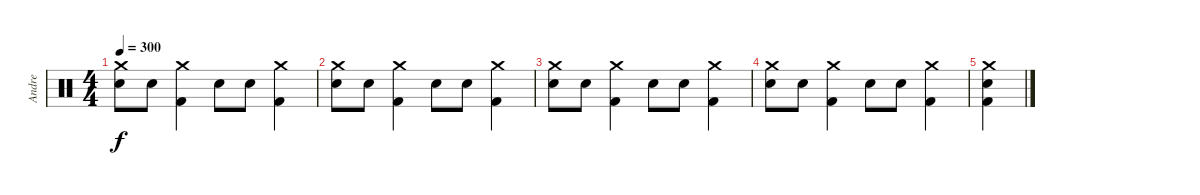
\track ("Andre" "Andre") {instrument percussion}
\staff {score}
\articulation defaults
\ts (4 4)
\tempo 300
\clef neutral
\ks c
("Crash medium (hit)" "Electric Snare (hit)").8{dy f} "Electric Snare (hit)".8 ("Crash medium (hit)" "Kick (hit) 2").4 "Electric Snare (hit)".8 "Electric Snare (hit)".8 ("Crash medium (hit)" "Kick (hit) 2").4 |
("Crash medium (hit)" "Electric Snare (hit)").8 "Electric Snare (hit)".8 ("Crash medium (hit)" "Kick (hit) 2").4 "Electric Snare (hit)".8 "Electric Snare (hit)".8 ("Crash medium (hit)" "Kick (hit) 2").4 |
("Crash medium (hit)" "Electric Snare (hit)").8 "Electric Snare (hit)".8 ("Crash medium (hit)" "Kick (hit) 2").4 "Electric Snare (hit)".8 "Electric Snare (hit)".8 ("Crash medium (hit)" "Kick (hit) 2").4 |
("Crash medium (hit)" "Electric Snare (hit)").8 "Electric Snare (hit)".8 ("Crash medium (hit)" "Kick (hit) 2").4 "Electric Snare (hit)".8 "Electric Snare (hit)".8 ("Crash medium (hit)" "Kick (hit) 2").4 |
("Crash medium (hit)" "Electric Snare (hit)" "Kick (hit) 2").4
